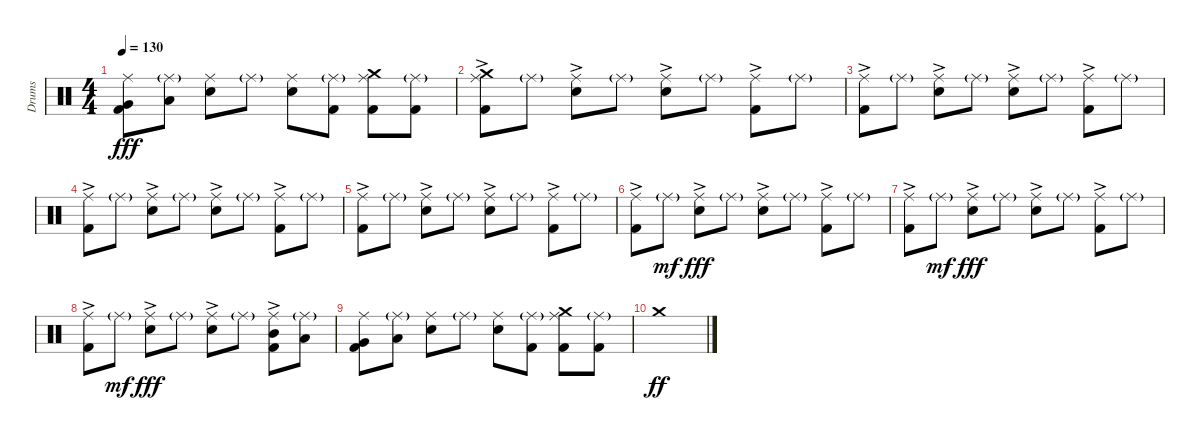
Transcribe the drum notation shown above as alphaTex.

\track ("Drums" "Drums") {instrument percussion}
\staff {score}
\articulation defaults
\ts (4 4)
\tempo 130
\clef neutral
\ks c
("Ride (middle)" "Very Low Tom (hit)" "Kick (hit) 2").8{dy fff} ("Ride (middle)"{g} "Low Floor Tom (hit)").8 ("Ride (middle)" "Electric Snare (hit)").8 "Ride (middle)"{g}.8 ("Ride (middle)" "Electric Snare (hit)").8 ("Ride (middle)"{g} "Kick (hit) 2").8 ("Ride (middle)" "Crash medium (hit)" "Kick (hit) 2").8 ("Ride (middle)"{g} "Kick (hit) 2").8 |
("Crash medium (hit)" "Ride (middle)"{ac} "Kick (hit) 2").8 "Ride (middle)"{g}.8 ("Ride (middle)"{ac} "Electric Snare (hit)").8 "Ride (middle)"{g}.8 ("Ride (middle)"{ac} "Electric Snare (hit)").8 "Ride (middle)"{g}.8 ("Ride (middle)"{ac} "Kick (hit) 2").8 "Ride (middle)"{g}.8 |
("Ride (middle)"{ac} "Kick (hit) 2").8 "Ride (middle)"{g}.8 ("Ride (middle)"{ac} "Electric Snare (hit)").8 "Ride (middle)"{g}.8 ("Ride (middle)"{ac} "Electric Snare (hit)").8 "Ride (middle)"{g}.8 ("Ride (middle)"{ac} "Kick (hit) 2").8 "Ride (middle)"{g}.8 |
("Ride (middle)"{ac} "Kick (hit) 2").8 "Ride (middle)"{g}.8 ("Ride (middle)"{ac} "Electric Snare (hit)").8 "Ride (middle)"{g}.8 ("Ride (middle)"{ac} "Electric Snare (hit)").8 "Ride (middle)"{g}.8 ("Ride (middle)"{ac} "Kick (hit) 2").8 "Ride (middle)"{g}.8 |
("Ride (middle)"{ac} "Kick (hit) 2").8 "Ride (middle)"{g}.8 ("Ride (middle)"{ac} "Electric Snare (hit)").8 "Ride (middle)"{g}.8 ("Ride (middle)"{ac} "Electric Snare (hit)").8 "Ride (middle)"{g}.8 ("Ride (middle)"{ac} "Kick (hit) 2").8 "Ride (middle)"{g}.8 |
("Ride (middle)"{ac} "Kick (hit) 2").8 "Ride (middle)"{g}.8{dy mf} ("Ride (middle)"{ac} "Electric Snare (hit)").8{dy fff} "Ride (middle)"{g}.8 ("Ride (middle)"{ac} "Electric Snare (hit)").8 "Ride (middle)"{g}.8 ("Ride (middle)"{ac} "Kick (hit) 2").8 "Ride (middle)"{g}.8 |
("Ride (middle)"{ac} "Kick (hit) 2").8 "Ride (middle)"{g}.8{dy mf} ("Ride (middle)"{ac} "Electric Snare (hit)").8{dy fff} "Ride (middle)"{g}.8 ("Ride (middle)"{ac} "Electric Snare (hit)").8 "Ride (middle)"{g}.8 ("Ride (middle)"{ac} "Kick (hit) 2").8 "Ride (middle)"{g}.8 |
("Ride (middle)"{ac} "Kick (hit) 2").8 "Ride (middle)"{g}.8{dy mf} ("Ride (middle)"{ac} "Electric Snare (hit)").8{dy fff} "Ride (middle)"{g}.8 ("Ride (middle)"{ac} "Electric Snare (hit)").8 "Ride (middle)"{g}.8 ("Ride (middle)"{ac} "Mid Tom (hit)" "Kick (hit) 2").8 ("Ride (middle)"{g} "Low Tom (hit)").8 |
("Ride (middle)" "Very Low Tom (hit)" "Kick (hit) 2").8 ("Ride (middle)"{g} "Low Floor Tom (hit)").8 ("Ride (middle)" "Electric Snare (hit)").8 "Ride (middle)"{g}.8 ("Ride (middle)" "Electric Snare (hit)").8 ("Ride (middle)"{g} "Kick (hit) 2").8 ("Ride (middle)" "Crash medium (hit)" "Kick (hit) 2").8 ("Ride (middle)"{g} "Kick (hit) 2").8 |
"Crash medium (hit)".1{dy ff}
